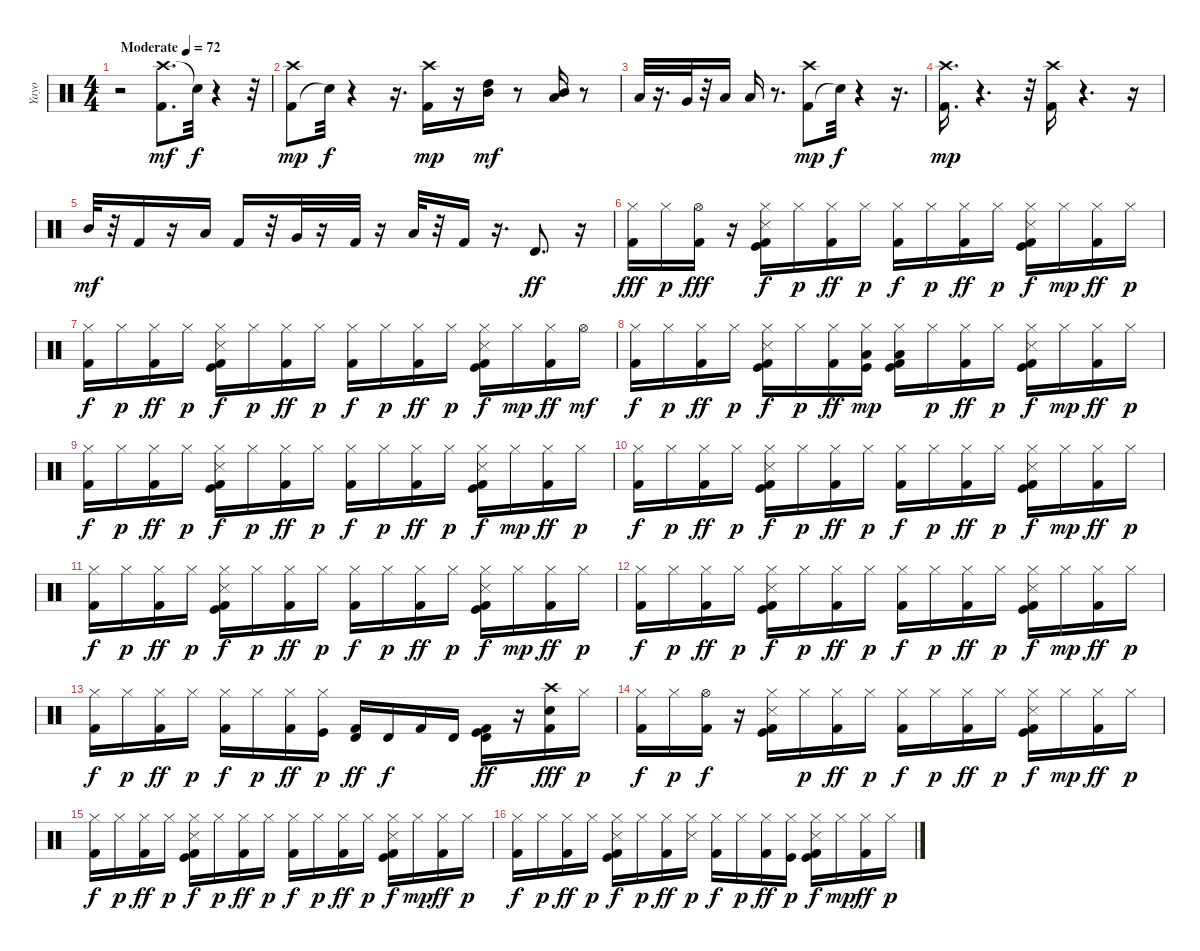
\track ("Yayo" "Yayo") {instrument percussion}
\staff {score}
\articulation defaults
\ts (4 4)
\tempo (72 "Moderate")
\clef neutral
\ks c
r.2{dy mf} ("Crash high (hit)" "Kick (hit) 2").8{d} "Snare (hit)"{t}.32{dy f} r.4 r.32 |
("Kick (hit) 2" "Crash high (hit)").8{dy mp} "Snare (hit)"{t}.32{dy f} r.4 r.16{d} ("Kick (hit) 2" "Crash high (hit)").16{dy mp} r.16 ("High Tom (hit)" "Mid Tom (hit)").16{dy mf} r.8 ("Low Tom (hit)" "Mid Tom (hit)").16 r.8 |
"Low Tom (hit)".32 r.16{d} "Very Low Tom (hit)".32 r.32 "Low Floor Tom (hit)".16 "Low Floor Tom (hit)".16 r.8{d} ("Kick (hit) 2" "Crash high (hit)").8{dy mp} "Snare (hit)"{t}.32{dy f} r.4 r.16{d} |
("Kick (hit) 2" "Crash high (hit)").16{d dy mp} r.4{d} r.32 ("Kick (hit) 2" "Crash high (hit)").16 r.4{d} r.16 |
"Mid Tom (hit)".32{dy mf} r.32 "Kick (hit) 2".16 r.16 "Low Tom (hit)".16 "Kick (hit) 2".16 r.32 "Very Low Tom (hit)".32 r.16 "Kick (hit) 2".32 r.16 "Low Floor Tom (hit)".32 r.32 "Kick (hit) 2".16 r.16{d} "Timbale high (hit)".8{d dy ff} r.16 |
("Hi-Hat (closed)" "Kick (hit) 2").16{dy fff} "Hi-Hat (closed)".16{dy p} ("Hi-Hat (open)" "Kick (hit) 2").16{dy fff} r.16 ("Kick (hit)" "Hi-Hat (closed)" "Snare (side stick) 3" "Kick (hit) 2").16{dy f} "Hi-Hat (closed)".16{dy p} ("Hi-Hat (closed)" "Kick (hit) 2").16{dy ff} "Hi-Hat (closed)".16{dy p} ("Hi-Hat (closed)" "Kick (hit) 2").16{dy f} "Hi-Hat (closed)".16{dy p} ("Hi-Hat (closed)" "Kick (hit) 2").16{dy ff} "Hi-Hat (closed)".16{dy p} ("Kick (hit)" "Hi-Hat (closed)" "Snare (side stick) 3" "Kick (hit) 2").16{dy f} "Hi-Hat (closed)".16{dy mp} ("Hi-Hat (closed)" "Kick (hit) 2").16{dy ff} "Hi-Hat (closed)".16{dy p} |
("Hi-Hat (closed)" "Kick (hit) 2").16{dy f} "Hi-Hat (closed)".16{dy p} ("Hi-Hat (closed)" "Kick (hit) 2").16{dy ff} "Hi-Hat (closed)".16{dy p} ("Kick (hit)" "Hi-Hat (closed)" "Snare (side stick) 3" "Kick (hit) 2").16{dy f} "Hi-Hat (closed)".16{dy p} ("Hi-Hat (closed)" "Kick (hit) 2").16{dy ff} "Hi-Hat (closed)".16{dy p} ("Hi-Hat (closed)" "Kick (hit) 2").16{dy f} "Hi-Hat (closed)".16{dy p} ("Hi-Hat (closed)" "Kick (hit) 2").16{dy ff} "Hi-Hat (closed)".16{dy p} ("Kick (hit)" "Hi-Hat (closed)" "Snare (side stick) 3" "Kick (hit) 2").16{dy f} "Hi-Hat (closed)".16{dy mp} ("Hi-Hat (closed)" "Kick (hit) 2").16{dy ff} "Hi-Hat (open)".16{dy mf} |
("Hi-Hat (closed)" "Kick (hit) 2").16{dy f} "Hi-Hat (closed)".16{dy p} ("Hi-Hat (closed)" "Kick (hit) 2").16{dy ff} "Hi-Hat (closed)".16{dy p} ("Kick (hit)" "Hi-Hat (closed)" "Snare (side stick) 3" "Kick (hit) 2").16{dy f} "Hi-Hat (closed)".16{dy p} ("Hi-Hat (closed)" "Kick (hit) 2").16{dy ff} ("Kick (hit)" "Hi-Hat (closed)" "Low Tom (hit)").16{dy mp} ("Kick (hit)" "Hi-Hat (closed)" "Low Tom (hit)" "Kick (hit) 2").16 "Hi-Hat (closed)".16{dy p} ("Hi-Hat (closed)" "Kick (hit) 2").16{dy ff} "Hi-Hat (closed)".16{dy p} ("Kick (hit)" "Hi-Hat (closed)" "Snare (side stick) 3" "Kick (hit) 2").16{dy f} "Hi-Hat (closed)".16{dy mp} ("Hi-Hat (closed)" "Kick (hit) 2").16{dy ff} "Hi-Hat (closed)".16{dy p} |
("Hi-Hat (closed)" "Kick (hit) 2").16{dy f} "Hi-Hat (closed)".16{dy p} ("Hi-Hat (closed)" "Kick (hit) 2").16{dy ff} "Hi-Hat (closed)".16{dy p} ("Kick (hit)" "Hi-Hat (closed)" "Snare (side stick) 3" "Kick (hit) 2").16{dy f} "Hi-Hat (closed)".16{dy p} ("Hi-Hat (closed)" "Kick (hit) 2").16{dy ff} "Hi-Hat (closed)".16{dy p} ("Hi-Hat (closed)" "Kick (hit) 2").16{dy f} "Hi-Hat (closed)".16{dy p} ("Hi-Hat (closed)" "Kick (hit) 2").16{dy ff} "Hi-Hat (closed)".16{dy p} ("Kick (hit)" "Hi-Hat (closed)" "Snare (side stick) 3" "Kick (hit) 2").16{dy f} "Hi-Hat (closed)".16{dy mp} ("Hi-Hat (closed)" "Kick (hit) 2").16{dy ff} "Hi-Hat (closed)".16{dy p} |
("Hi-Hat (closed)" "Kick (hit) 2").16{dy f} "Hi-Hat (closed)".16{dy p} ("Hi-Hat (closed)" "Kick (hit) 2").16{dy ff} "Hi-Hat (closed)".16{dy p} ("Kick (hit)" "Hi-Hat (closed)" "Snare (side stick) 3" "Kick (hit) 2").16{dy f} "Hi-Hat (closed)".16{dy p} ("Hi-Hat (closed)" "Kick (hit) 2").16{dy ff} "Hi-Hat (closed)".16{dy p} ("Hi-Hat (closed)" "Kick (hit) 2").16{dy f} "Hi-Hat (closed)".16{dy p} ("Hi-Hat (closed)" "Kick (hit) 2").16{dy ff} "Hi-Hat (closed)".16{dy p} ("Kick (hit)" "Hi-Hat (closed)" "Snare (side stick) 3" "Kick (hit) 2").16{dy f} "Hi-Hat (closed)".16{dy mp} ("Hi-Hat (closed)" "Kick (hit) 2").16{dy ff} "Hi-Hat (closed)".16{dy p} |
("Hi-Hat (closed)" "Kick (hit) 2").16{dy f} "Hi-Hat (closed)".16{dy p} ("Hi-Hat (closed)" "Kick (hit) 2").16{dy ff} "Hi-Hat (closed)".16{dy p} ("Kick (hit)" "Hi-Hat (closed)" "Snare (side stick) 3" "Kick (hit) 2").16{dy f} "Hi-Hat (closed)".16{dy p} ("Hi-Hat (closed)" "Kick (hit) 2").16{dy ff} "Hi-Hat (closed)".16{dy p} ("Hi-Hat (closed)" "Kick (hit) 2").16{dy f} "Hi-Hat (closed)".16{dy p} ("Hi-Hat (closed)" "Kick (hit) 2").16{dy ff} "Hi-Hat (closed)".16{dy p} ("Kick (hit)" "Hi-Hat (closed)" "Snare (side stick) 3" "Kick (hit) 2").16{dy f} "Hi-Hat (closed)".16{dy mp} ("Hi-Hat (closed)" "Kick (hit) 2").16{dy ff} "Hi-Hat (closed)".16{dy p} |
("Hi-Hat (closed)" "Kick (hit) 2").16{dy f} "Hi-Hat (closed)".16{dy p} ("Hi-Hat (closed)" "Kick (hit) 2").16{dy ff} "Hi-Hat (closed)".16{dy p} ("Kick (hit)" "Hi-Hat (closed)" "Snare (side stick) 3" "Kick (hit) 2").16{dy f} "Hi-Hat (closed)".16{dy p} ("Hi-Hat (closed)" "Kick (hit) 2").16{dy ff} "Hi-Hat (closed)".16{dy p} ("Hi-Hat (closed)" "Kick (hit) 2").16{dy f} "Hi-Hat (closed)".16{dy p} ("Hi-Hat (closed)" "Kick (hit) 2").16{dy ff} "Hi-Hat (closed)".16{dy p} ("Kick (hit)" "Hi-Hat (closed)" "Snare (side stick) 3" "Kick (hit) 2").16{dy f} "Hi-Hat (closed)".16{dy mp} ("Hi-Hat (closed)" "Kick (hit) 2").16{dy ff} "Hi-Hat (closed)".16{dy p} |
("Hi-Hat (closed)" "Kick (hit) 2").16{dy f} "Hi-Hat (closed)".16{dy p} ("Hi-Hat (closed)" "Kick (hit) 2").16{dy ff} "Hi-Hat (closed)".16{dy p} ("Hi-Hat (closed)" "Kick (hit) 2").16{dy f} "Hi-Hat (closed)".16{dy p} ("Hi-Hat (closed)" "Kick (hit) 2").16{dy ff} ("Kick (hit)" "Hi-Hat (closed)").16{dy p} ("Timbale high (hit)" "Kick (hit) 2").16{dy ff} "Timbale high (hit)".16{dy f} "Kick (hit) 2".16 "Timbale high (hit)".16 ("Kick (hit)" "Timbale high (hit)" "Kick (hit) 2").16{dy ff} r.16 ("Snare (hit) 2" "Crash high (hit)" "Kick (hit) 2").16{dy fff} "Hi-Hat (closed)".16{dy p} |
("Hi-Hat (closed)" "Kick (hit) 2").16{dy f} "Hi-Hat (closed)".16{dy p} ("Hi-Hat (open)" "Kick (hit) 2").16{dy f} r.16 ("Kick (hit)" "Hi-Hat (closed)" "Snare (side stick) 3" "Kick (hit) 2").16 "Hi-Hat (closed)".16{dy p} ("Hi-Hat (closed)" "Kick (hit) 2").16{dy ff} "Hi-Hat (closed)".16{dy p} ("Hi-Hat (closed)" "Kick (hit) 2").16{dy f} "Hi-Hat (closed)".16{dy p} ("Hi-Hat (closed)" "Kick (hit) 2").16{dy ff} "Hi-Hat (closed)".16{dy p} ("Kick (hit)" "Hi-Hat (closed)" "Snare (side stick) 3" "Kick (hit) 2").16{dy f} "Hi-Hat (closed)".16{dy mp} ("Hi-Hat (closed)" "Kick (hit) 2").16{dy ff} "Hi-Hat (closed)".16{dy p} |
("Hi-Hat (closed)" "Kick (hit) 2").16{dy f} "Hi-Hat (closed)".16{dy p} ("Hi-Hat (closed)" "Kick (hit) 2").16{dy ff} "Hi-Hat (closed)".16{dy p} ("Kick (hit)" "Hi-Hat (closed)" "Snare (side stick) 3" "Kick (hit) 2").16{dy f} "Hi-Hat (closed)".16{dy p} ("Hi-Hat (closed)" "Kick (hit) 2").16{dy ff} "Hi-Hat (closed)".16{dy p} ("Hi-Hat (closed)" "Kick (hit) 2").16{dy f} "Hi-Hat (closed)".16{dy p} ("Hi-Hat (closed)" "Kick (hit) 2").16{dy ff} "Hi-Hat (closed)".16{dy p} ("Kick (hit)" "Hi-Hat (closed)" "Snare (side stick) 3" "Kick (hit) 2").16{dy f} "Hi-Hat (closed)".16{dy mp} ("Hi-Hat (closed)" "Kick (hit) 2").16{dy ff} "Hi-Hat (closed)".16{dy p} |
("Hi-Hat (closed)" "Kick (hit) 2").16{dy f} "Hi-Hat (closed)".16{dy p} ("Hi-Hat (closed)" "Kick (hit) 2").16{dy ff} "Hi-Hat (closed)".16{dy p} ("Kick (hit)" "Hi-Hat (closed)" "Snare (side stick) 3" "Kick (hit) 2").16{dy f} "Hi-Hat (closed)".16{dy p} ("Hi-Hat (closed)" "Kick (hit) 2").16{dy ff} ("Hi-Hat (closed)" "Snare (side stick) 3").16{dy p} ("Hi-Hat (closed)" "Kick (hit) 2").16{dy f} "Hi-Hat (closed)".16{dy p} ("Hi-Hat (closed)" "Kick (hit) 2").16{dy ff} ("Kick (hit)" "Hi-Hat (closed)").16{dy p} ("Kick (hit)" "Hi-Hat (closed)" "Snare (side stick) 3" "Kick (hit) 2").16{dy f} "Hi-Hat (closed)".16{dy mp} ("Hi-Hat (closed)" "Kick (hit) 2").16{dy ff} "Hi-Hat (closed)".16{dy p}
